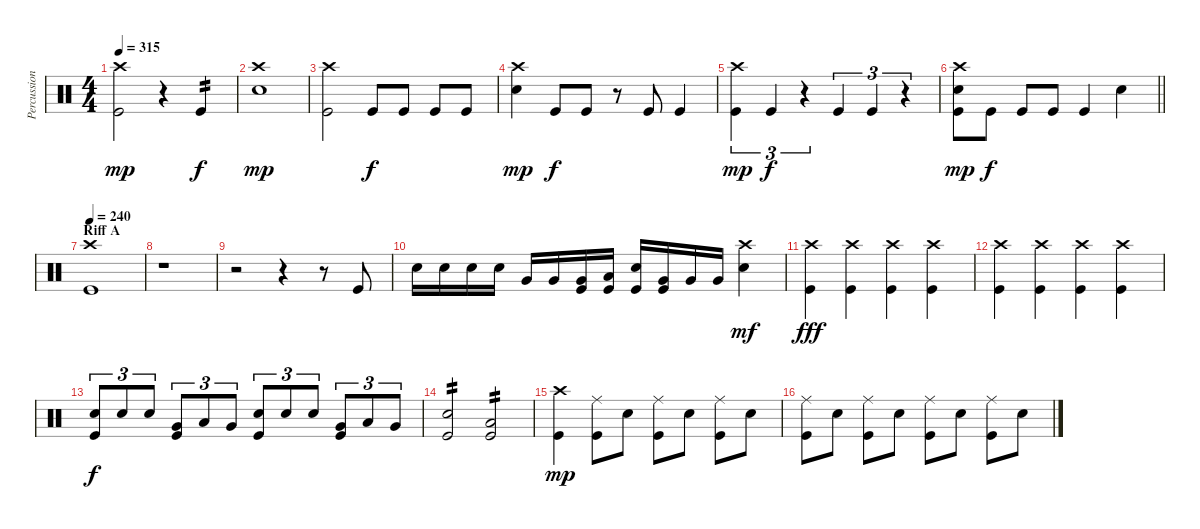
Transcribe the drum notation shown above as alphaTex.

\track ("Percussion" "Percussion") {instrument percussion}
\staff {score}
\articulation defaults
\ts (4 4)
\tempo 315
\clef neutral
\ks c
("Crash high (hit)" "Kick (hit)").2{dy mp} r.4 "Kick (hit)".4{tp 2 dy f} |
("Crash high (hit)" "Electric Snare (hit)").1{dy mp} |
("Crash high (hit)" "Kick (hit)").2 "Kick (hit)".8{dy f} "Kick (hit)".8 "Kick (hit)".8 "Kick (hit)".8 |
("Crash high (hit)" "Electric Snare (hit)").4{dy mp} "Kick (hit)".8{dy f} "Kick (hit)".8 r.8 "Kick (hit)".8 "Kick (hit)".4 |
("Crash high (hit)" "Kick (hit)").4{tu (3 2) dy mp} "Kick (hit)".4{tu (3 2) dy f} r.4{tu (3 2)} "Kick (hit)".4{tu (3 2)} "Kick (hit)".4{tu (3 2)} r.4{tu (3 2)} |
\barLineRight lightlight
("Crash high (hit)" "Electric Snare (hit)" "Kick (hit)").8{dy mp} "Kick (hit)".8{dy f} "Kick (hit)".8 "Kick (hit)".8 "Kick (hit)".4 "Electric Snare (hit)".4 |
\section ("" "Riff A")
\tempo 240
("Crash high (hit)" "Kick (hit)").1 |
r.1 |
r.2 r.4 r.8 "Kick (hit)".8 |
"Electric Snare (hit)".16 "Electric Snare (hit)".16 "Electric Snare (hit)".16 "Electric Snare (hit)".16 "Very Low Tom (hit)".16 "Very Low Tom (hit)".16 ("Very Low Tom (hit)" "Kick (hit)").16 ("Low Floor Tom (hit)" "Kick (hit)").16 ("Snare (hit)" "Kick (hit)").16 ("Very Low Tom (hit)" "Kick (hit)").16 "Very Low Tom (hit)".16 "Very Low Tom (hit)".16 ("Crash high (hit)" "Electric Snare (hit)").4{dy mf} |
("Crash high (hit)" "Kick (hit)").4{dy fff} ("Crash high (hit)" "Kick (hit)").4 ("Crash high (hit)" "Kick (hit)").4 ("Crash high (hit)" "Kick (hit)").4 |
("Crash high (hit)" "Kick (hit)").4 ("Crash high (hit)" "Kick (hit)").4 ("Crash high (hit)" "Kick (hit)").4 ("Crash high (hit)" "Kick (hit)").4 |
("Electric Snare (hit)" "Kick (hit)").8{tu (3 2) dy f} "Electric Snare (hit)".8{tu (3 2)} "Electric Snare (hit)".8{tu (3 2)} ("Very Low Tom (hit)" "Kick (hit)").8{tu (3 2)} "Low Floor Tom (hit)".8{tu (3 2)} "Very Low Tom (hit)".8{tu (3 2)} ("Electric Snare (hit)" "Kick (hit)").8{tu (3 2)} "Electric Snare (hit)".8{tu (3 2)} "Electric Snare (hit)".8{tu (3 2)} ("Very Low Tom (hit)" "Kick (hit)").8{tu (3 2)} "Low Floor Tom (hit)".8{tu (3 2)} "Very Low Tom (hit)".8{tu (3 2)} |
("Electric Snare (hit)" "Kick (hit)").2{tp 2} ("Low Floor Tom (hit)" "Kick (hit)").2{tp 2} |
("Crash high (hit)" "Kick (hit)").4{dy mp} ("Ride (middle)" "Kick (hit)").8 "Electric Snare (hit)".8 ("Ride (middle)" "Kick (hit)").8 "Electric Snare (hit)".8 ("Ride (middle)" "Kick (hit)").8 "Electric Snare (hit)".8 |
("Ride (middle)" "Kick (hit)").8 "Electric Snare (hit)".8 ("Ride (middle)" "Kick (hit)").8 "Electric Snare (hit)".8 ("Ride (middle)" "Kick (hit)").8 "Electric Snare (hit)".8 ("Ride (middle)" "Kick (hit)").8 "Electric Snare (hit)".8
